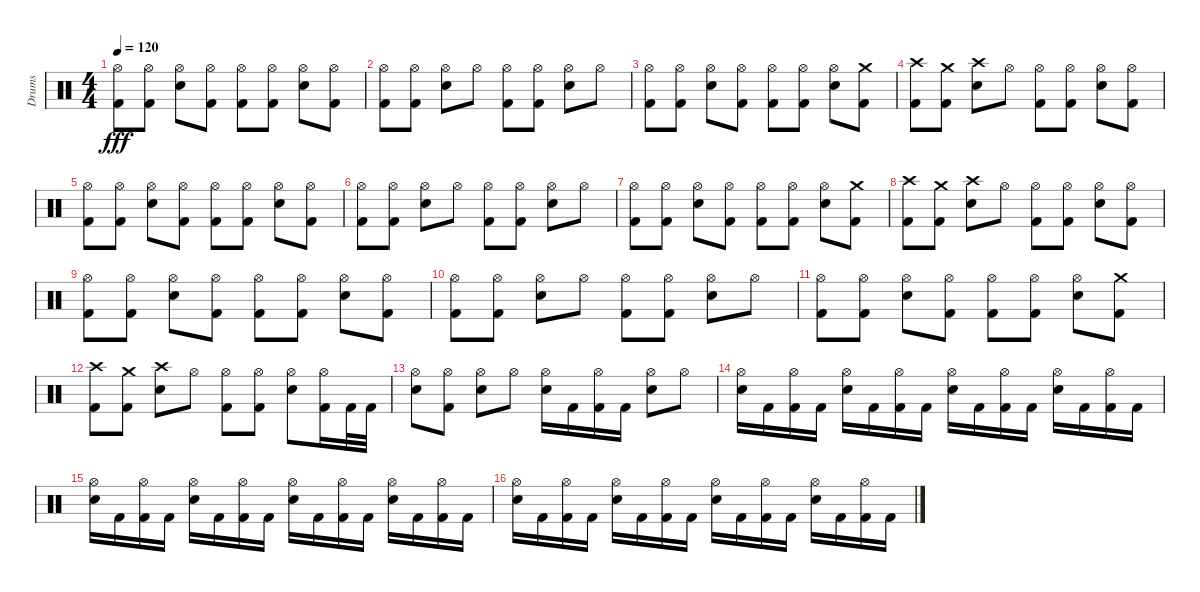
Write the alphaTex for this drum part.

\track ("Drums" "Drums") {instrument percussion}
\staff {score}
\articulation defaults
\ts (4 4)
\tempo 120
\clef neutral
\ks c
("Hi-Hat (open)" "Kick (hit) 2").8{dy fff} ("Hi-Hat (open)" "Kick (hit) 2").8 ("Hi-Hat (open)" "Electric Snare (hit)").8 ("Hi-Hat (open)" "Kick (hit) 2").8 ("Hi-Hat (open)" "Kick (hit) 2").8 ("Hi-Hat (open)" "Kick (hit) 2").8 ("Hi-Hat (open)" "Electric Snare (hit)").8 ("Hi-Hat (open)" "Kick (hit) 2").8 |
("Kick (hit) 2" "Hi-Hat (open)").8 ("Hi-Hat (open)" "Kick (hit) 2").8 ("Hi-Hat (open)" "Electric Snare (hit)").8 "Hi-Hat (open)".8 ("Hi-Hat (open)" "Kick (hit) 2").8 ("Hi-Hat (open)" "Kick (hit) 2").8 ("Hi-Hat (open)" "Electric Snare (hit)").8 "Hi-Hat (open)".8 |
("Hi-Hat (open)" "Kick (hit) 2").8 ("Hi-Hat (open)" "Kick (hit) 2").8 ("Hi-Hat (open)" "Electric Snare (hit)").8 ("Kick (hit) 2" "Hi-Hat (open)").8 ("Hi-Hat (open)" "Kick (hit) 2").8 ("Hi-Hat (open)" "Kick (hit) 2").8 ("Hi-Hat (open)" "Electric Snare (hit)").8 ("Crash medium (hit)" "Kick (hit) 2").8 |
("Kick (hit) 2" "Crash high (hit)").8 ("Crash medium (hit)" "Kick (hit) 2").8 ("Crash high (hit)" "Electric Snare (hit)").8 "Hi-Hat (open)".8 ("Hi-Hat (open)" "Kick (hit) 2").8 ("Hi-Hat (open)" "Kick (hit) 2").8 ("Hi-Hat (open)" "Electric Snare (hit)").8 ("Hi-Hat (open)" "Kick (hit) 2").8 |
("Hi-Hat (open)" "Kick (hit) 2").8 ("Hi-Hat (open)" "Kick (hit) 2").8 ("Hi-Hat (open)" "Electric Snare (hit)").8 ("Hi-Hat (open)" "Kick (hit) 2").8 ("Hi-Hat (open)" "Kick (hit) 2").8 ("Hi-Hat (open)" "Kick (hit) 2").8 ("Hi-Hat (open)" "Electric Snare (hit)").8 ("Hi-Hat (open)" "Kick (hit) 2").8 |
("Kick (hit) 2" "Hi-Hat (open)").8 ("Hi-Hat (open)" "Kick (hit) 2").8 ("Hi-Hat (open)" "Electric Snare (hit)").8 "Hi-Hat (open)".8 ("Hi-Hat (open)" "Kick (hit) 2").8 ("Hi-Hat (open)" "Kick (hit) 2").8 ("Hi-Hat (open)" "Electric Snare (hit)").8 "Hi-Hat (open)".8 |
("Hi-Hat (open)" "Kick (hit) 2").8 ("Hi-Hat (open)" "Kick (hit) 2").8 ("Hi-Hat (open)" "Electric Snare (hit)").8 ("Kick (hit) 2" "Hi-Hat (open)").8 ("Hi-Hat (open)" "Kick (hit) 2").8 ("Hi-Hat (open)" "Kick (hit) 2").8 ("Hi-Hat (open)" "Electric Snare (hit)").8 ("Crash medium (hit)" "Kick (hit) 2").8 |
("Kick (hit) 2" "Crash high (hit)").8 ("Crash medium (hit)" "Kick (hit) 2").8 ("Crash high (hit)" "Electric Snare (hit)").8 "Hi-Hat (open)".8 ("Hi-Hat (open)" "Kick (hit) 2").8 ("Hi-Hat (open)" "Kick (hit) 2").8 ("Hi-Hat (open)" "Electric Snare (hit)").8 ("Hi-Hat (open)" "Kick (hit) 2").8 |
("Hi-Hat (open)" "Kick (hit) 2").8 ("Hi-Hat (open)" "Kick (hit) 2").8 ("Hi-Hat (open)" "Electric Snare (hit)").8 ("Hi-Hat (open)" "Kick (hit) 2").8 ("Hi-Hat (open)" "Kick (hit) 2").8 ("Hi-Hat (open)" "Kick (hit) 2").8 ("Hi-Hat (open)" "Electric Snare (hit)").8 ("Hi-Hat (open)" "Kick (hit) 2").8 |
("Kick (hit) 2" "Hi-Hat (open)").8 ("Hi-Hat (open)" "Kick (hit) 2").8 ("Hi-Hat (open)" "Electric Snare (hit)").8 "Hi-Hat (open)".8 ("Hi-Hat (open)" "Kick (hit) 2").8 ("Hi-Hat (open)" "Kick (hit) 2").8 ("Hi-Hat (open)" "Electric Snare (hit)").8 "Hi-Hat (open)".8 |
("Hi-Hat (open)" "Kick (hit) 2").8 ("Hi-Hat (open)" "Kick (hit) 2").8 ("Hi-Hat (open)" "Electric Snare (hit)").8 ("Kick (hit) 2" "Hi-Hat (open)").8 ("Hi-Hat (open)" "Kick (hit) 2").8 ("Hi-Hat (open)" "Kick (hit) 2").8 ("Hi-Hat (open)" "Electric Snare (hit)").8 ("Crash medium (hit)" "Kick (hit) 2").8 |
("Kick (hit) 2" "Crash high (hit)").8 ("Crash medium (hit)" "Kick (hit) 2").8 ("Crash high (hit)" "Electric Snare (hit)").8 "Hi-Hat (open)".8 ("Hi-Hat (open)" "Kick (hit) 2").8 ("Hi-Hat (open)" "Kick (hit) 2").8 ("Hi-Hat (open)" "Electric Snare (hit)").8 ("Hi-Hat (open)" "Kick (hit) 2").16 "Kick (hit) 2".32 "Kick (hit) 2".32 |
("Hi-Hat (open)" "Electric Snare (hit)").8 ("Hi-Hat (open)" "Kick (hit) 2").8 ("Hi-Hat (open)" "Electric Snare (hit)").8 "Hi-Hat (open)".8 ("Hi-Hat (open)" "Electric Snare (hit)").16 "Kick (hit) 2".16 ("Hi-Hat (open)" "Kick (hit) 2").16 "Kick (hit) 2".16 ("Hi-Hat (open)" "Electric Snare (hit)").8 "Hi-Hat (open)".8 |
("Hi-Hat (open)" "Electric Snare (hit)").16 "Kick (hit) 2".16 ("Hi-Hat (open)" "Kick (hit) 2").16 "Kick (hit) 2".16 ("Hi-Hat (open)" "Electric Snare (hit)").16 "Kick (hit) 2".16 ("Hi-Hat (open)" "Kick (hit) 2").16 "Kick (hit) 2".16 ("Hi-Hat (open)" "Electric Snare (hit)").16 "Kick (hit) 2".16 ("Hi-Hat (open)" "Kick (hit) 2").16 "Kick (hit) 2".16 ("Hi-Hat (open)" "Electric Snare (hit)").16 "Kick (hit) 2".16 ("Hi-Hat (open)" "Kick (hit) 2").16 "Kick (hit) 2".16 |
("Hi-Hat (open)" "Electric Snare (hit)").16 "Kick (hit) 2".16 ("Hi-Hat (open)" "Kick (hit) 2").16 "Kick (hit) 2".16 ("Hi-Hat (open)" "Electric Snare (hit)").16 "Kick (hit) 2".16 ("Hi-Hat (open)" "Kick (hit) 2").16 "Kick (hit) 2".16 ("Hi-Hat (open)" "Electric Snare (hit)").16 "Kick (hit) 2".16 ("Hi-Hat (open)" "Kick (hit) 2").16 "Kick (hit) 2".16 ("Hi-Hat (open)" "Electric Snare (hit)").16 "Kick (hit) 2".16 ("Hi-Hat (open)" "Kick (hit) 2").16 "Kick (hit) 2".16 |
("Hi-Hat (open)" "Electric Snare (hit)").16 "Kick (hit) 2".16 ("Hi-Hat (open)" "Kick (hit) 2").16 "Kick (hit) 2".16 ("Hi-Hat (open)" "Electric Snare (hit)").16 "Kick (hit) 2".16 ("Hi-Hat (open)" "Kick (hit) 2").16 "Kick (hit) 2".16 ("Hi-Hat (open)" "Electric Snare (hit)").16 "Kick (hit) 2".16 ("Hi-Hat (open)" "Kick (hit) 2").16 "Kick (hit) 2".16 ("Hi-Hat (open)" "Electric Snare (hit)").16 "Kick (hit) 2".16 ("Hi-Hat (open)" "Kick (hit) 2").16 "Kick (hit) 2".16
